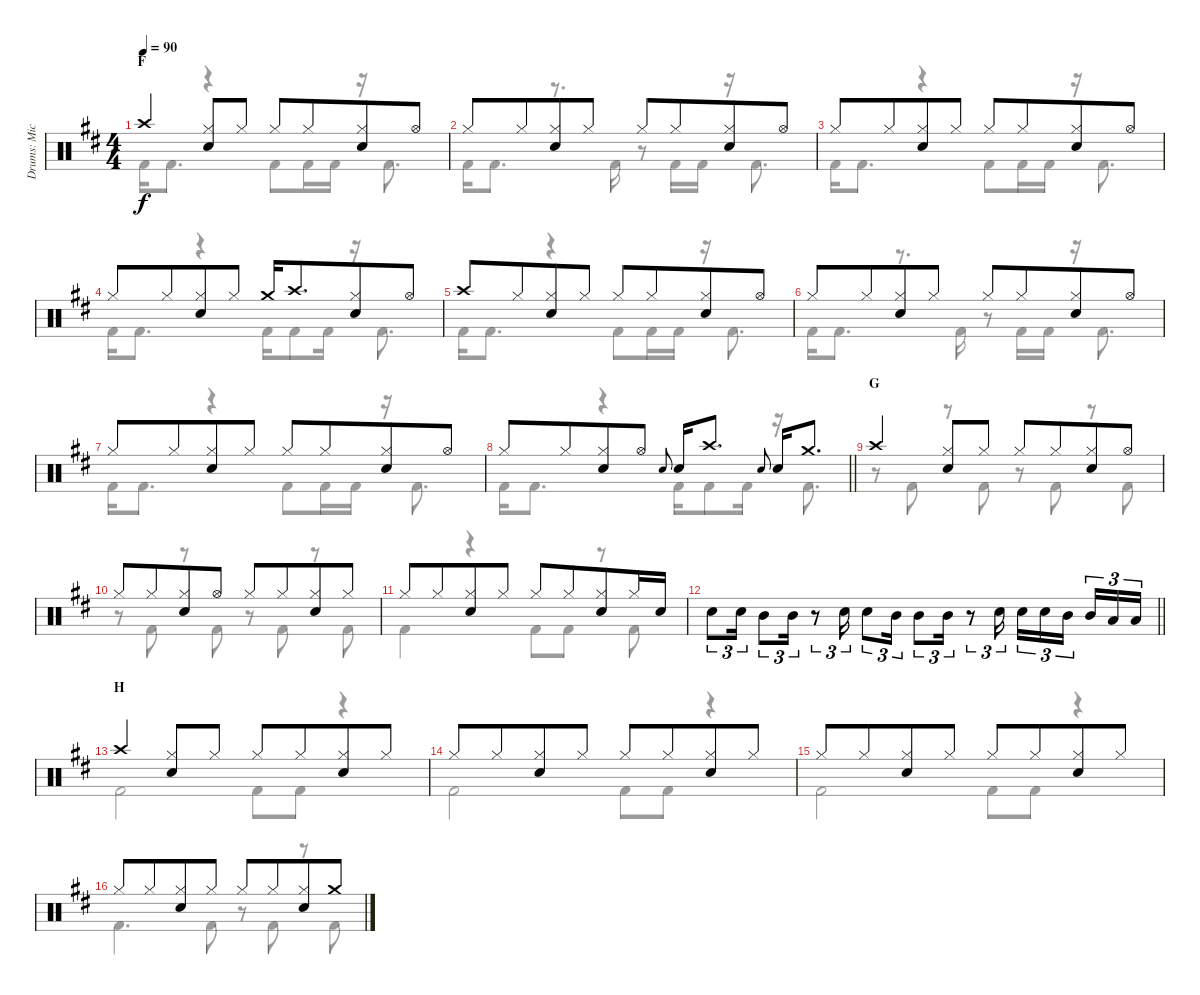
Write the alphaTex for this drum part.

\track ("Drums: Mick" "Drums: Mic") {instrument percussion}
\staff {score}
\articulation defaults
\voice
\ts (4 4)
\section ("" "F")
\tempo 90
\clef neutral
\ks d "Crash high (hit)".4{dy f}
("Hi-Hat (closed)" "Snare (hit) 2").8 "Hi-Hat (closed)".8 "Hi-Hat (closed)".8 "Hi-Hat (closed)".8{beam merge} ("Hi-Hat (closed)" "Snare (hit) 2").8 "Hi-Hat (open)".8 |
"Hi-Hat (closed)".8 "Hi-Hat (closed)".8{beam merge} ("Hi-Hat (closed)" "Snare (hit) 2").8 "Hi-Hat (closed)".8 "Hi-Hat (closed)".8 "Hi-Hat (closed)".8{beam merge} ("Hi-Hat (closed)" "Snare (hit) 2").8 "Hi-Hat (open)".8 |
"Hi-Hat (closed)".8 "Hi-Hat (closed)".8{beam merge} ("Hi-Hat (closed)" "Snare (hit) 2").8 "Hi-Hat (closed)".8 "Hi-Hat (closed)".8 "Hi-Hat (closed)".8{beam merge} ("Hi-Hat (closed)" "Snare (hit) 2").8 "Hi-Hat (open)".8 |
"Hi-Hat (closed)".8 "Hi-Hat (closed)".8{beam merge} ("Hi-Hat (closed)" "Snare (hit) 2").8 "Hi-Hat (closed)".8 "Crash medium (hit)".16 "Crash high (hit)".8{d beam merge} ("Hi-Hat (closed)" "Snare (hit) 2").8 "Hi-Hat (open)".8 |
"Crash high (hit)".8 "Hi-Hat (closed)".8{beam merge} ("Hi-Hat (closed)" "Snare (hit) 2").8 "Hi-Hat (closed)".8 "Hi-Hat (closed)".8 "Hi-Hat (closed)".8{beam merge} ("Hi-Hat (closed)" "Snare (hit) 2").8 "Hi-Hat (open)".8 |
"Hi-Hat (closed)".8 "Hi-Hat (closed)".8{beam merge} ("Hi-Hat (closed)" "Snare (hit) 2").8 "Hi-Hat (closed)".8 "Hi-Hat (closed)".8 "Hi-Hat (closed)".8{beam merge} ("Hi-Hat (closed)" "Snare (hit) 2").8 "Hi-Hat (open)".8 |
"Hi-Hat (closed)".8 "Hi-Hat (closed)".8{beam merge} ("Hi-Hat (closed)" "Snare (hit) 2").8 "Hi-Hat (closed)".8 "Hi-Hat (closed)".8 "Hi-Hat (closed)".8{beam merge} ("Hi-Hat (closed)" "Snare (hit) 2").8 "Hi-Hat (open)".8 |
\barLineRight lightlight "Hi-Hat (closed)".8 "Hi-Hat (closed)".8{beam merge}
("Hi-Hat (closed)" "Snare (hit) 2").8 "Hi-Hat (open)".8 "Electric Snare (hit)".8{gr onbeat} "Snare (hit) 2".16 "Crash high (hit)".8{d} "Electric Snare (hit)".8{gr onbeat} "Snare (hit) 2".16 "Crash medium (hit)".8{d} |
\section ("" "G")
"Crash high (hit)".4 ("Hi-Hat (closed)" "Snare (hit) 2").8 "Hi-Hat (closed)".8 "Hi-Hat (closed)".8 "Hi-Hat (closed)".8{beam merge} ("Hi-Hat (closed)" "Snare (hit) 2").8 "Hi-Hat (open)".8 |
"Hi-Hat (closed)".8 "Hi-Hat (closed)".8{beam merge} ("Hi-Hat (closed)" "Snare (hit) 2").8 "Hi-Hat (open)".8 "Hi-Hat (closed)".8 "Hi-Hat (closed)".8{beam merge} ("Hi-Hat (closed)" "Snare (hit) 2").8 "Hi-Hat (closed)".8 |
"Hi-Hat (closed)".8 "Hi-Hat (closed)".8{beam merge} ("Hi-Hat (closed)" "Snare (hit) 2").8 "Hi-Hat (closed)".8 "Hi-Hat (closed)".8 "Hi-Hat (closed)".8{beam merge} ("Hi-Hat (closed)" "Snare (hit) 2").8 "Hi-Hat (closed)".16 "Snare (hit) 2".16 |
\barLineRight lightlight "Snare (hit) 2".8{tu (3 2)} "Snare (hit) 2".16{tu (3 2)} "Mid Tom (hit)".8{tu (3 2)} "Mid Tom (hit)".16{tu (3 2)}
r.8{tu (3 2)} "Snare (hit) 2".16{tu (3 2)} "Snare (hit) 2".8{tu (3 2)} "Mid Tom (hit)".16{tu (3 2)} "Mid Tom (hit)".8{tu (3 2)} "Mid Tom (hit)".16{tu (3 2)} r.8{tu (3 2)} "Snare (hit) 2".16{tu (3 2)} "Snare (hit) 2".16{tu (3 2)} "Snare (hit) 2".16{tu (3 2)} "Mid Tom (hit)".16{tu (3 2) beam splitsecondary} "Mid Tom (hit)".16{tu (3 2)} "Low Tom (hit)".16{tu (3 2)} "Low Tom (hit)".16{tu (3 2)} |
\section ("" "H")
"Crash high (hit)".4 ("Hi-Hat (closed)" "Snare (hit) 2").8 "Hi-Hat (closed)".8 "Hi-Hat (closed)".8 "Hi-Hat (closed)".8{beam merge} ("Hi-Hat (closed)" "Snare (hit) 2").8 "Hi-Hat (closed)".8 |
"Hi-Hat (closed)".8 "Hi-Hat (closed)".8{beam merge} ("Hi-Hat (closed)" "Snare (hit) 2").8 "Hi-Hat (closed)".8 "Hi-Hat (closed)".8 "Hi-Hat (closed)".8{beam merge} ("Hi-Hat (closed)" "Snare (hit) 2").8 "Hi-Hat (closed)".8 |
"Hi-Hat (closed)".8 "Hi-Hat (closed)".8{beam merge} ("Hi-Hat (closed)" "Snare (hit) 2").8 "Hi-Hat (closed)".8 "Hi-Hat (closed)".8 "Hi-Hat (closed)".8{beam merge} ("Hi-Hat (closed)" "Snare (hit) 2").8 "Hi-Hat (closed)".8 |
"Hi-Hat (closed)".8 "Hi-Hat (closed)".8{beam merge} ("Hi-Hat (closed)" "Snare (hit) 2").8 "Hi-Hat (closed)".8 "Hi-Hat (closed)".8 "Hi-Hat (closed)".8{beam merge} ("Hi-Hat (closed)" "Snare (hit) 2").8 "Crash medium (hit)".8
\voice
\clef neutral
\ottava regular
\simile none
\ks d "Kick (hit) 2".16{dy f} "Kick (hit) 2".8{d}
r.4 "Kick (hit) 2".8 "Kick (hit) 2".16 "Kick (hit) 2".16 r.16 "Kick (hit) 2".8{d} |
"Kick (hit) 2".16 "Kick (hit) 2".8{d} r.8{d} "Kick (hit) 2".16 r.8 "Kick (hit) 2".16 "Kick (hit) 2".16 r.16 "Kick (hit) 2".8{d} |
"Kick (hit) 2".16 "Kick (hit) 2".8{d} r.4 "Kick (hit) 2".8 "Kick (hit) 2".16 "Kick (hit) 2".16 r.16 "Kick (hit) 2".8{d} |
"Kick (hit) 2".16 "Kick (hit) 2".8{d} r.4 "Kick (hit) 2".16 "Kick (hit) 2".8 "Kick (hit) 2".16 r.16 "Kick (hit) 2".8{d} |
"Kick (hit) 2".16 "Kick (hit) 2".8{d} r.4 "Kick (hit) 2".8 "Kick (hit) 2".16 "Kick (hit) 2".16 r.16 "Kick (hit) 2".8{d} |
"Kick (hit) 2".16 "Kick (hit) 2".8{d} r.8{d} "Kick (hit) 2".16 r.8 "Kick (hit) 2".16 "Kick (hit) 2".16 r.16 "Kick (hit) 2".8{d} |
"Kick (hit) 2".16 "Kick (hit) 2".8{d} r.4 "Kick (hit) 2".8 "Kick (hit) 2".16 "Kick (hit) 2".16 r.16 "Kick (hit) 2".8{d} |
\barLineRight lightlight "Kick (hit) 2".16 "Kick (hit) 2".8{d}
r.4 "Kick (hit) 2".16 "Kick (hit) 2".8 "Kick (hit) 2".16 r.16 "Kick (hit) 2".8{d} |
r.8 "Kick (hit) 2".8 r.8 "Kick (hit) 2".8 r.8 "Kick (hit) 2".8 r.8 "Kick (hit) 2".8 |
r.8 "Kick (hit) 2".8 r.8 "Kick (hit) 2".8 r.8 "Kick (hit) 2".8 r.8 "Kick (hit) 2".8 |
"Kick (hit) 2".4 r.4 "Kick (hit) 2".8 "Kick (hit) 2".8 r.8 "Kick (hit) 2".8 |
\barLineRight lightlight
|
"Kick (hit) 2".2 "Kick (hit) 2".8 "Kick (hit) 2".8 r.4 |
"Kick (hit) 2".2 "Kick (hit) 2".8 "Kick (hit) 2".8 r.4 |
"Kick (hit) 2".2 "Kick (hit) 2".8 "Kick (hit) 2".8 r.4 |
"Kick (hit) 2".4{d} "Kick (hit) 2".8 r.8 "Kick (hit) 2".8 r.8 "Kick (hit) 2".8
